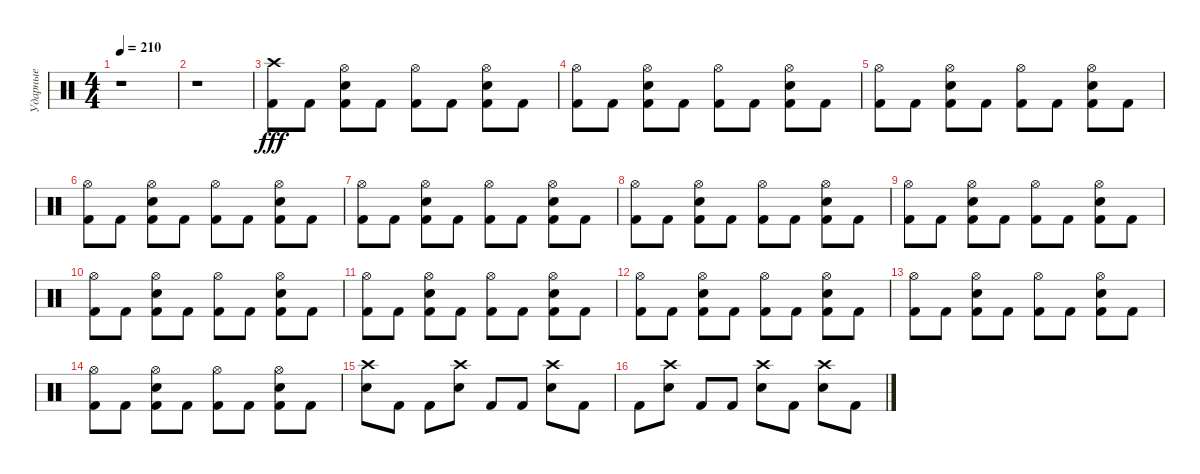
\track ("Ударные" "Ударные") {instrument percussion}
\staff {score}
\articulation defaults
\ts (4 4)
\tempo 210
\clef neutral
\ks c
r.1{dy fff} |
r.1 |
("Kick (hit) 2" "Crash high (hit)").8 "Kick (hit) 2".8 ("Kick (hit) 2" "Snare (hit) 2" "Hi-Hat (open)").8 "Kick (hit) 2".8 ("Kick (hit) 2" "Hi-Hat (open)").8 "Kick (hit) 2".8 ("Kick (hit) 2" "Snare (hit) 2" "Hi-Hat (open)").8 "Kick (hit) 2".8 |
("Kick (hit) 2" "Hi-Hat (open)").8 "Kick (hit) 2".8 ("Kick (hit) 2" "Snare (hit) 2" "Hi-Hat (open)").8 "Kick (hit) 2".8 ("Kick (hit) 2" "Hi-Hat (open)").8 "Kick (hit) 2".8 ("Kick (hit) 2" "Snare (hit) 2" "Hi-Hat (open)").8 "Kick (hit) 2".8 |
("Kick (hit) 2" "Hi-Hat (open)").8 "Kick (hit) 2".8 ("Kick (hit) 2" "Snare (hit) 2" "Hi-Hat (open)").8 "Kick (hit) 2".8 ("Kick (hit) 2" "Hi-Hat (open)").8 "Kick (hit) 2".8 ("Kick (hit) 2" "Snare (hit) 2" "Hi-Hat (open)").8 "Kick (hit) 2".8 |
("Kick (hit) 2" "Hi-Hat (open)").8 "Kick (hit) 2".8 ("Kick (hit) 2" "Snare (hit) 2" "Hi-Hat (open)").8 "Kick (hit) 2".8 ("Kick (hit) 2" "Hi-Hat (open)").8 "Kick (hit) 2".8 ("Kick (hit) 2" "Snare (hit) 2" "Hi-Hat (open)").8 "Kick (hit) 2".8 |
("Kick (hit) 2" "Hi-Hat (open)").8 "Kick (hit) 2".8 ("Kick (hit) 2" "Snare (hit) 2" "Hi-Hat (open)").8 "Kick (hit) 2".8 ("Kick (hit) 2" "Hi-Hat (open)").8 "Kick (hit) 2".8 ("Kick (hit) 2" "Snare (hit) 2" "Hi-Hat (open)").8 "Kick (hit) 2".8 |
("Kick (hit) 2" "Hi-Hat (open)").8 "Kick (hit) 2".8 ("Kick (hit) 2" "Snare (hit) 2" "Hi-Hat (open)").8 "Kick (hit) 2".8 ("Kick (hit) 2" "Hi-Hat (open)").8 "Kick (hit) 2".8 ("Kick (hit) 2" "Snare (hit) 2" "Hi-Hat (open)").8 "Kick (hit) 2".8 |
("Kick (hit) 2" "Hi-Hat (open)").8 "Kick (hit) 2".8 ("Kick (hit) 2" "Snare (hit) 2" "Hi-Hat (open)").8 "Kick (hit) 2".8 ("Kick (hit) 2" "Hi-Hat (open)").8 "Kick (hit) 2".8 ("Kick (hit) 2" "Snare (hit) 2" "Hi-Hat (open)").8 "Kick (hit) 2".8 |
("Kick (hit) 2" "Hi-Hat (open)").8 "Kick (hit) 2".8 ("Kick (hit) 2" "Snare (hit) 2" "Hi-Hat (open)").8 "Kick (hit) 2".8 ("Kick (hit) 2" "Hi-Hat (open)").8 "Kick (hit) 2".8 ("Kick (hit) 2" "Snare (hit) 2" "Hi-Hat (open)").8 "Kick (hit) 2".8 |
("Kick (hit) 2" "Hi-Hat (open)").8 "Kick (hit) 2".8 ("Kick (hit) 2" "Snare (hit) 2" "Hi-Hat (open)").8 "Kick (hit) 2".8 ("Kick (hit) 2" "Hi-Hat (open)").8 "Kick (hit) 2".8 ("Kick (hit) 2" "Snare (hit) 2" "Hi-Hat (open)").8 "Kick (hit) 2".8 |
("Kick (hit) 2" "Hi-Hat (open)").8 "Kick (hit) 2".8 ("Kick (hit) 2" "Snare (hit) 2" "Hi-Hat (open)").8 "Kick (hit) 2".8 ("Kick (hit) 2" "Hi-Hat (open)").8 "Kick (hit) 2".8 ("Kick (hit) 2" "Snare (hit) 2" "Hi-Hat (open)").8 "Kick (hit) 2".8 |
("Kick (hit) 2" "Hi-Hat (open)").8 "Kick (hit) 2".8 ("Kick (hit) 2" "Snare (hit) 2" "Hi-Hat (open)").8 "Kick (hit) 2".8 ("Kick (hit) 2" "Hi-Hat (open)").8 "Kick (hit) 2".8 ("Kick (hit) 2" "Snare (hit) 2" "Hi-Hat (open)").8 "Kick (hit) 2".8 |
("Kick (hit) 2" "Hi-Hat (open)").8 "Kick (hit) 2".8 ("Kick (hit) 2" "Snare (hit) 2" "Hi-Hat (open)").8 "Kick (hit) 2".8 ("Kick (hit) 2" "Hi-Hat (open)").8 "Kick (hit) 2".8 ("Kick (hit) 2" "Snare (hit) 2" "Hi-Hat (open)").8 "Kick (hit) 2".8 |
("Snare (hit) 2" "Crash high (hit)").8 "Kick (hit) 2".8 "Kick (hit) 2".8 ("Snare (hit) 2" "Crash high (hit)").8 "Kick (hit) 2".8 "Kick (hit) 2".8 ("Snare (hit) 2" "Crash high (hit)").8 "Kick (hit) 2".8 |
"Kick (hit) 2".8 ("Snare (hit) 2" "Crash high (hit)").8 "Kick (hit) 2".8 "Kick (hit) 2".8 ("Snare (hit) 2" "Crash high (hit)").8 "Kick (hit) 2".8 ("Snare (hit) 2" "Crash high (hit)").8 "Kick (hit) 2".8
